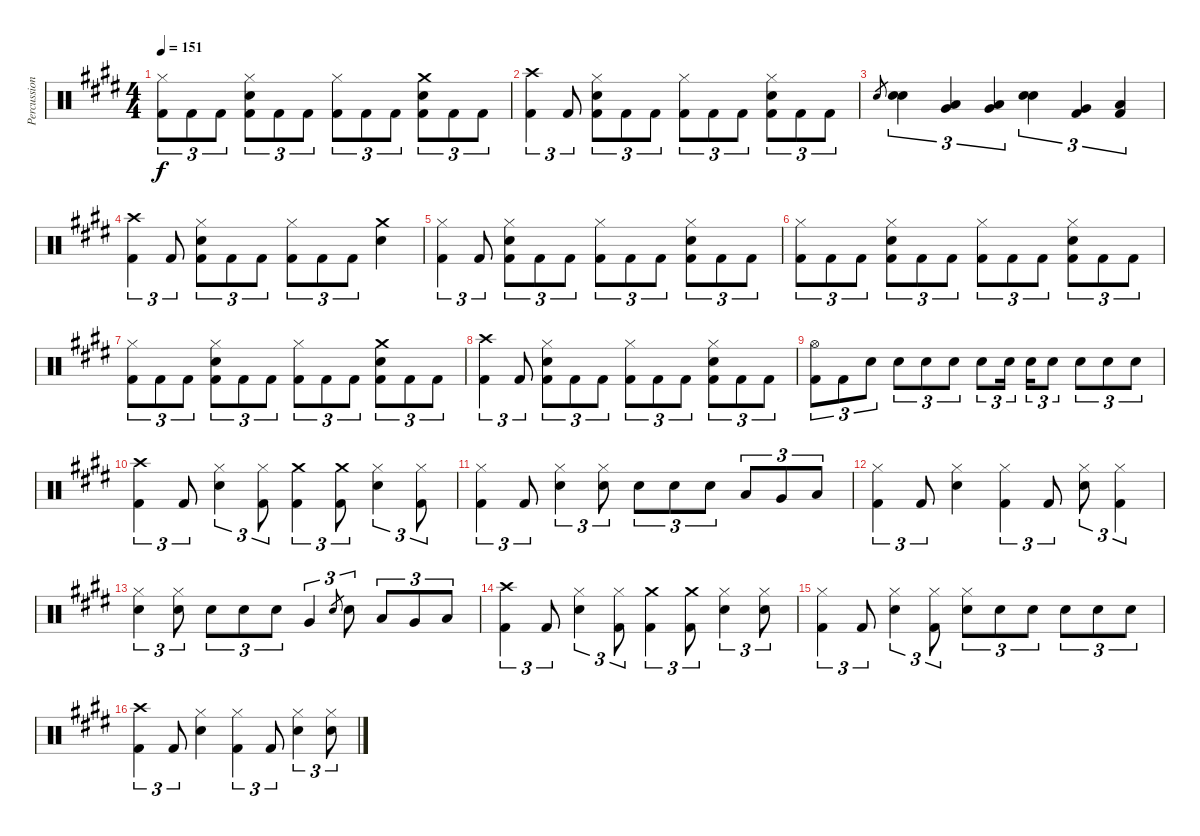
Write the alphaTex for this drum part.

\track ("Percussion" "Percussion") {instrument percussion}
\staff {score}
\articulation defaults
\ts (4 4)
\tempo 151
\clef neutral
\ks e
("Hi-Hat (closed)" "Kick (hit) 2").8{tu (3 2) dy f} "Kick (hit) 2".8{tu (3 2)} "Kick (hit) 2".8{tu (3 2)} ("Hi-Hat (closed)" "Snare (hit) 2" "Kick (hit) 2").8{tu (3 2)} "Kick (hit) 2".8{tu (3 2)} "Kick (hit) 2".8{tu (3 2)} ("Hi-Hat (closed)" "Kick (hit) 2").8{tu (3 2)} "Kick (hit) 2".8{tu (3 2)} "Kick (hit) 2".8{tu (3 2)} ("Crash medium (hit)" "Snare (hit) 2" "Kick (hit) 2").8{tu (3 2)} "Kick (hit) 2".8{tu (3 2)} "Kick (hit) 2".8{tu (3 2)} |
("Crash high (hit)" "Kick (hit) 2").4{tu (3 2)} "Kick (hit) 2".8{tu (3 2)} ("Hi-Hat (closed)" "Snare (hit) 2" "Kick (hit) 2").8{tu (3 2)} "Kick (hit) 2".8{tu (3 2)} "Kick (hit) 2".8{tu (3 2)} ("Hi-Hat (closed)" "Kick (hit) 2").8{tu (3 2)} "Kick (hit) 2".8{tu (3 2)} "Kick (hit) 2".8{tu (3 2)} ("Hi-Hat (closed)" "Snare (hit) 2" "Kick (hit) 2").8{tu (3 2)} "Kick (hit) 2".8{tu (3 2)} "Kick (hit) 2".8{tu (3 2)} |
"Snare (hit) 2".8{gr} ("Snare (hit) 2" "Snare (hit) 2").4{tu (3 2)} ("Low Tom (hit)" "Very Low Tom (hit)").4{tu (3 2)} ("Very Low Tom (hit)" "Low Floor Tom (hit)").4{tu (3 2)} ("Snare (hit) 2" "Snare (hit) 2").4{tu (3 2)} ("Very Low Tom (hit)" "Kick (hit) 2").4{tu (3 2)} ("Low Floor Tom (hit)" "Kick (hit) 2").4{tu (3 2)} |
("Crash high (hit)" "Kick (hit) 2").4{tu (3 2)} "Kick (hit) 2".8{tu (3 2)} ("Hi-Hat (closed)" "Snare (hit) 2" "Kick (hit) 2").8{tu (3 2)} "Kick (hit) 2".8{tu (3 2)} "Kick (hit) 2".8{tu (3 2)} ("Hi-Hat (closed)" "Kick (hit) 2").8{tu (3 2)} "Kick (hit) 2".8{tu (3 2)} "Kick (hit) 2".8{tu (3 2)} ("Crash medium (hit)" "Snare (hit) 2").4 |
("Hi-Hat (closed)" "Kick (hit) 2").4{tu (3 2)} "Kick (hit) 2".8{tu (3 2)} ("Hi-Hat (closed)" "Snare (hit) 2" "Kick (hit) 2").8{tu (3 2)} "Kick (hit) 2".8{tu (3 2)} "Kick (hit) 2".8{tu (3 2)} ("Hi-Hat (closed)" "Kick (hit) 2").8{tu (3 2)} "Kick (hit) 2".8{tu (3 2)} "Kick (hit) 2".8{tu (3 2)} ("Hi-Hat (closed)" "Snare (hit) 2" "Kick (hit) 2").8{tu (3 2)} "Kick (hit) 2".8{tu (3 2)} "Kick (hit) 2".8{tu (3 2)} |
("Hi-Hat (closed)" "Kick (hit) 2").8{tu (3 2)} "Kick (hit) 2".8{tu (3 2)} "Kick (hit) 2".8{tu (3 2)} ("Hi-Hat (closed)" "Snare (hit) 2" "Kick (hit) 2").8{tu (3 2)} "Kick (hit) 2".8{tu (3 2)} "Kick (hit) 2".8{tu (3 2)} ("Hi-Hat (closed)" "Kick (hit) 2").8{tu (3 2)} "Kick (hit) 2".8{tu (3 2)} "Kick (hit) 2".8{tu (3 2)} ("Hi-Hat (closed)" "Snare (hit) 2" "Kick (hit) 2").8{tu (3 2)} "Kick (hit) 2".8{tu (3 2)} "Kick (hit) 2".8{tu (3 2)} |
("Hi-Hat (closed)" "Kick (hit) 2").8{tu (3 2)} "Kick (hit) 2".8{tu (3 2)} "Kick (hit) 2".8{tu (3 2)} ("Hi-Hat (closed)" "Snare (hit) 2" "Kick (hit) 2").8{tu (3 2)} "Kick (hit) 2".8{tu (3 2)} "Kick (hit) 2".8{tu (3 2)} ("Hi-Hat (closed)" "Kick (hit) 2").8{tu (3 2)} "Kick (hit) 2".8{tu (3 2)} "Kick (hit) 2".8{tu (3 2)} ("Crash medium (hit)" "Snare (hit) 2" "Kick (hit) 2").8{tu (3 2)} "Kick (hit) 2".8{tu (3 2)} "Kick (hit) 2".8{tu (3 2)} |
("Crash high (hit)" "Kick (hit) 2").4{tu (3 2)} "Kick (hit) 2".8{tu (3 2)} ("Hi-Hat (closed)" "Snare (hit) 2" "Kick (hit) 2").8{tu (3 2)} "Kick (hit) 2".8{tu (3 2)} "Kick (hit) 2".8{tu (3 2)} ("Hi-Hat (closed)" "Kick (hit) 2").8{tu (3 2)} "Kick (hit) 2".8{tu (3 2)} "Kick (hit) 2".8{tu (3 2)} ("Hi-Hat (closed)" "Snare (hit) 2" "Kick (hit) 2").8{tu (3 2)} "Kick (hit) 2".8{tu (3 2)} "Kick (hit) 2".8{tu (3 2)} |
("Hi-Hat (open)" "Kick (hit) 2").8{tu (3 2)} "Kick (hit) 2".8{tu (3 2)} "Snare (hit) 2".8{tu (3 2)} "Snare (hit) 2".8{tu (3 2)} "Snare (hit) 2".8{tu (3 2)} "Snare (hit) 2".8{tu (3 2)} "Snare (hit) 2".8{tu (3 2)} "Snare (hit) 2".16{tu (3 2) beam splitsecondary} "Snare (hit) 2".16{tu (3 2)} "Snare (hit) 2".8{tu (3 2)} "Snare (hit) 2".8{tu (3 2)} "Snare (hit) 2".8{tu (3 2)} "Snare (hit) 2".8{tu (3 2)} |
("Crash high (hit)" "Kick (hit) 2").4{tu (3 2)} "Kick (hit) 2".8{tu (3 2)} ("Hi-Hat (closed)" "Snare (hit) 2").4{tu (3 2)} ("Hi-Hat (closed)" "Kick (hit) 2").8{tu (3 2)} ("Crash medium (hit)" "Kick (hit) 2").4{tu (3 2)} ("Crash medium (hit)" "Kick (hit) 2").8{tu (3 2)} ("Hi-Hat (closed)" "Snare (hit) 2").4{tu (3 2)} ("Hi-Hat (closed)" "Kick (hit) 2").8{tu (3 2)} |
("Hi-Hat (closed)" "Kick (hit) 2").4{tu (3 2)} "Kick (hit) 2".8{tu (3 2)} ("Hi-Hat (closed)" "Snare (hit) 2").4{tu (3 2)} ("Hi-Hat (closed)" "Snare (hit) 2").8{tu (3 2)} "Snare (hit) 2".8{tu (3 2)} "Snare (hit) 2".8{tu (3 2)} "Snare (hit) 2".8{tu (3 2)} "Low Tom (hit)".8{tu (3 2)} "Very Low Tom (hit)".8{tu (3 2)} "Low Floor Tom (hit)".8{tu (3 2)} |
("Hi-Hat (closed)" "Kick (hit) 2").4{tu (3 2)} "Kick (hit) 2".8{tu (3 2)} ("Hi-Hat (closed)" "Snare (hit) 2").4 ("Hi-Hat (closed)" "Kick (hit) 2").4{tu (3 2)} "Kick (hit) 2".8{tu (3 2)} ("Hi-Hat (closed)" "Snare (hit) 2").8{tu (3 2)} ("Hi-Hat (closed)" "Kick (hit) 2").4{tu (3 2)} |
("Hi-Hat (closed)" "Snare (hit) 2").4{tu (3 2)} ("Hi-Hat (closed)" "Snare (hit) 2").8{tu (3 2)} "Snare (hit) 2".8{tu (3 2)} "Snare (hit) 2".8{tu (3 2)} "Snare (hit) 2".8{tu (3 2)} "Very Low Tom (hit)".4{tu (3 2)} "Snare (hit) 2".8{gr} "Snare (hit) 2".8{tu (3 2)} "Low Tom (hit)".8{tu (3 2)} "Very Low Tom (hit)".8{tu (3 2)} "Low Floor Tom (hit)".8{tu (3 2)} |
("Crash high (hit)" "Kick (hit) 2").4{tu (3 2)} "Kick (hit) 2".8{tu (3 2)} ("Hi-Hat (closed)" "Snare (hit) 2").4{tu (3 2)} ("Hi-Hat (closed)" "Kick (hit) 2").8{tu (3 2)} ("Crash medium (hit)" "Kick (hit) 2").4{tu (3 2)} ("Crash medium (hit)" "Kick (hit) 2").8{tu (3 2)} ("Hi-Hat (closed)" "Snare (hit) 2").4{tu (3 2)} ("Hi-Hat (closed)" "Snare (hit) 2").8{tu (3 2)} |
("Hi-Hat (closed)" "Kick (hit) 2").4{tu (3 2)} "Kick (hit) 2".8{tu (3 2)} ("Hi-Hat (closed)" "Snare (hit) 2").4{tu (3 2)} ("Hi-Hat (closed)" "Kick (hit) 2").8{tu (3 2)} ("Hi-Hat (closed)" "Snare (hit) 2").8{tu (3 2)} "Snare (hit) 2".8{tu (3 2)} "Snare (hit) 2".8{tu (3 2)} "Snare (hit) 2".8{tu (3 2)} "Snare (hit) 2".8{tu (3 2)} "Snare (hit) 2".8{tu (3 2)} |
("Crash high (hit)" "Kick (hit) 2").4{tu (3 2)} "Kick (hit) 2".8{tu (3 2)} ("Hi-Hat (closed)" "Snare (hit) 2").4 ("Hi-Hat (closed)" "Kick (hit) 2").4{tu (3 2)} "Kick (hit) 2".8{tu (3 2)} ("Hi-Hat (closed)" "Snare (hit) 2").4{tu (3 2)} ("Hi-Hat (closed)" "Snare (hit) 2").8{tu (3 2)}
